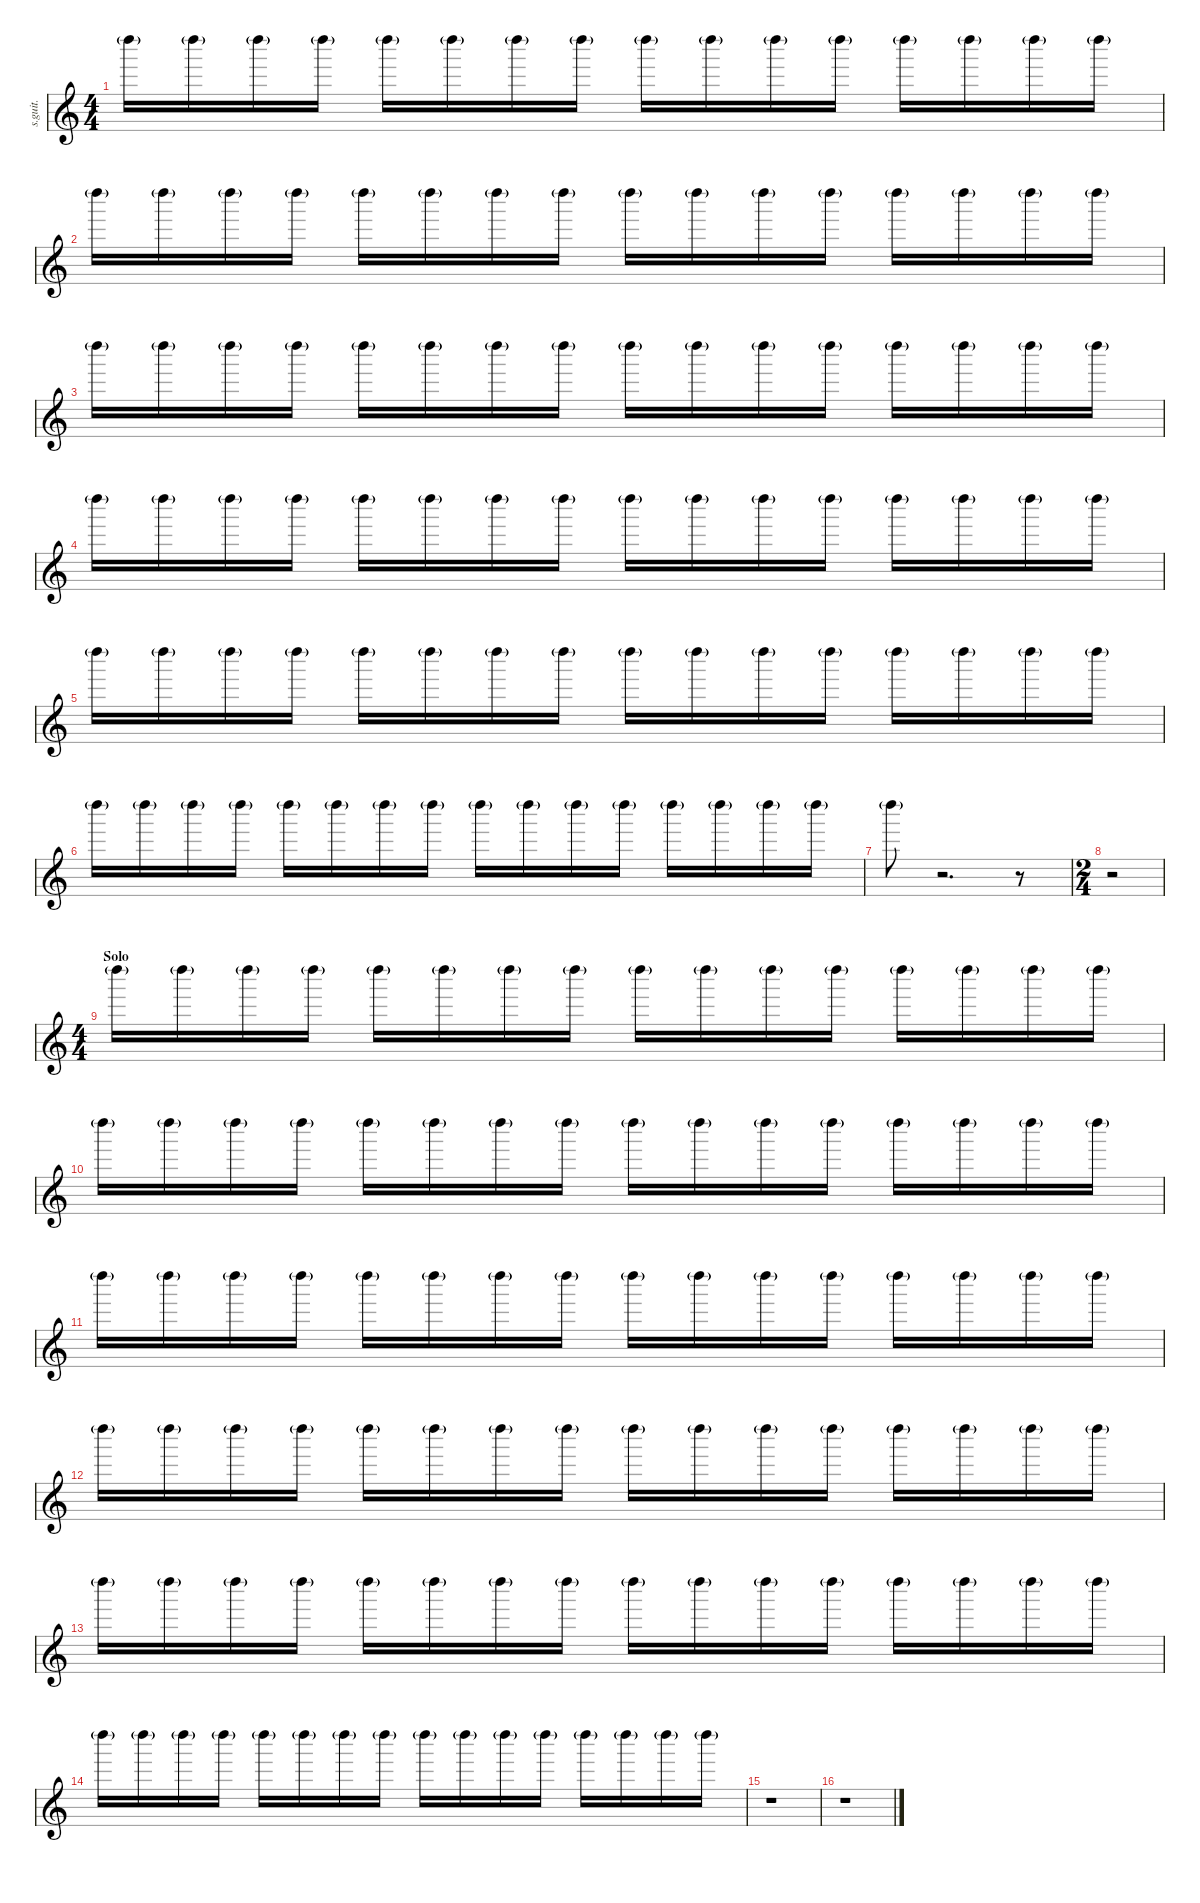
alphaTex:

\defaultSystemsLayout 4
\hideDynamics
\bracketExtendMode nobrackets
\track ("Shaker" "s.guit.") {instrument percussion}
\staff {score}
\articulation defaults
\ts (4 4)
\tempo (89 hide)
\clef g2
\ks c "Left Maraca (hit)"{g}.16{lyrics (0 "") lyrics (1 "") lyrics (2 "") lyrics (3 "") lyrics (4 "") dy mp} "Left Maraca (hit)"{g}.16{lyrics (0 "") lyrics (1 "") lyrics (2 "") lyrics (3 "") lyrics (4 "") dy p} "Left Maraca (hit)"{g}.16{lyrics (0 "") lyrics (1 "") lyrics (2 "") lyrics (3 "") lyrics (4 "")} "Left Maraca (hit)"{g}.16{lyrics (0 "") lyrics (1 "") lyrics (2 "") lyrics (3 "") lyrics (4 "")} "Left Maraca (hit)"{g}.16{lyrics (0 "") lyrics (1 "") lyrics (2 "") lyrics (3 "") lyrics (4 "") dy mp} "Left Maraca (hit)"{g}.16{lyrics (0 "") lyrics (1 "") lyrics (2 "") lyrics (3 "") lyrics (4 "") dy p} "Left Maraca (hit)"{g}.16{lyrics (0 "") lyrics (1 "") lyrics (2 "") lyrics (3 "") lyrics (4 "")} "Left Maraca (hit)"{g}.16{lyrics (0 "") lyrics (1 "") lyrics (2 "") lyrics (3 "") lyrics (4 "")} "Left Maraca (hit)"{g}.16{lyrics (0 "") lyrics (1 "") lyrics (2 "") lyrics (3 "") lyrics (4 "") dy mp} "Left Maraca (hit)"{g}.16{lyrics (0 "") lyrics (1 "") lyrics (2 "") lyrics (3 "") lyrics (4 "") dy p} "Left Maraca (hit)"{g}.16{lyrics (0 "") lyrics (1 "") lyrics (2 "") lyrics (3 "") lyrics (4 "")} "Left Maraca (hit)"{g}.16{lyrics (0 "") lyrics (1 "") lyrics (2 "") lyrics (3 "") lyrics (4 "")} "Left Maraca (hit)"{g}.16{lyrics (0 "") lyrics (1 "") lyrics (2 "") lyrics (3 "") lyrics (4 "") dy mp} "Left Maraca (hit)"{g}.16{lyrics (0 "") lyrics (1 "") lyrics (2 "") lyrics (3 "") lyrics (4 "") dy p} "Left Maraca (hit)"{g}.16{lyrics (0 "") lyrics (1 "") lyrics (2 "") lyrics (3 "") lyrics (4 "")} "Left Maraca (hit)"{g}.16{lyrics (0 "") lyrics (1 "") lyrics (2 "") lyrics (3 "") lyrics (4 "")}
|
"Left Maraca (hit)"{g}.16{lyrics (0 "") lyrics (1 "") lyrics (2 "") lyrics (3 "") lyrics (4 "") dy mp} "Left Maraca (hit)"{g}.16{lyrics (0 "") lyrics (1 "") lyrics (2 "") lyrics (3 "") lyrics (4 "") dy p} "Left Maraca (hit)"{g}.16{lyrics (0 "") lyrics (1 "") lyrics (2 "") lyrics (3 "") lyrics (4 "")} "Left Maraca (hit)"{g}.16{lyrics (0 "") lyrics (1 "") lyrics (2 "") lyrics (3 "") lyrics (4 "")} "Left Maraca (hit)"{g}.16{lyrics (0 "") lyrics (1 "") lyrics (2 "") lyrics (3 "") lyrics (4 "") dy mp} "Left Maraca (hit)"{g}.16{lyrics (0 "") lyrics (1 "") lyrics (2 "") lyrics (3 "") lyrics (4 "") dy p} "Left Maraca (hit)"{g}.16{lyrics (0 "") lyrics (1 "") lyrics (2 "") lyrics (3 "") lyrics (4 "")} "Left Maraca (hit)"{g}.16{lyrics (0 "") lyrics (1 "") lyrics (2 "") lyrics (3 "") lyrics (4 "")} "Left Maraca (hit)"{g}.16{lyrics (0 "") lyrics (1 "") lyrics (2 "") lyrics (3 "") lyrics (4 "") dy mp} "Left Maraca (hit)"{g}.16{lyrics (0 "") lyrics (1 "") lyrics (2 "") lyrics (3 "") lyrics (4 "") dy p} "Left Maraca (hit)"{g}.16{lyrics (0 "") lyrics (1 "") lyrics (2 "") lyrics (3 "") lyrics (4 "")} "Left Maraca (hit)"{g}.16{lyrics (0 "") lyrics (1 "") lyrics (2 "") lyrics (3 "") lyrics (4 "")} "Left Maraca (hit)"{g}.16{lyrics (0 "") lyrics (1 "") lyrics (2 "") lyrics (3 "") lyrics (4 "") dy mp} "Left Maraca (hit)"{g}.16{lyrics (0 "") lyrics (1 "") lyrics (2 "") lyrics (3 "") lyrics (4 "") dy p} "Left Maraca (hit)"{g}.16{lyrics (0 "") lyrics (1 "") lyrics (2 "") lyrics (3 "") lyrics (4 "")} "Left Maraca (hit)"{g}.16{lyrics (0 "") lyrics (1 "") lyrics (2 "") lyrics (3 "") lyrics (4 "")} |
\tempo (90 hide)
"Left Maraca (hit)"{g}.16{lyrics (0 "") lyrics (1 "") lyrics (2 "") lyrics (3 "") lyrics (4 "") dy mp} "Left Maraca (hit)"{g}.16{lyrics (0 "") lyrics (1 "") lyrics (2 "") lyrics (3 "") lyrics (4 "") dy p} "Left Maraca (hit)"{g}.16{lyrics (0 "") lyrics (1 "") lyrics (2 "") lyrics (3 "") lyrics (4 "")} "Left Maraca (hit)"{g}.16{lyrics (0 "") lyrics (1 "") lyrics (2 "") lyrics (3 "") lyrics (4 "")} "Left Maraca (hit)"{g}.16{lyrics (0 "") lyrics (1 "") lyrics (2 "") lyrics (3 "") lyrics (4 "") dy mp} "Left Maraca (hit)"{g}.16{lyrics (0 "") lyrics (1 "") lyrics (2 "") lyrics (3 "") lyrics (4 "") dy p} "Left Maraca (hit)"{g}.16{lyrics (0 "") lyrics (1 "") lyrics (2 "") lyrics (3 "") lyrics (4 "")} "Left Maraca (hit)"{g}.16{lyrics (0 "") lyrics (1 "") lyrics (2 "") lyrics (3 "") lyrics (4 "")} "Left Maraca (hit)"{g}.16{lyrics (0 "") lyrics (1 "") lyrics (2 "") lyrics (3 "") lyrics (4 "") dy mp} "Left Maraca (hit)"{g}.16{lyrics (0 "") lyrics (1 "") lyrics (2 "") lyrics (3 "") lyrics (4 "") dy p} "Left Maraca (hit)"{g}.16{lyrics (0 "") lyrics (1 "") lyrics (2 "") lyrics (3 "") lyrics (4 "")} "Left Maraca (hit)"{g}.16{lyrics (0 "") lyrics (1 "") lyrics (2 "") lyrics (3 "") lyrics (4 "")} "Left Maraca (hit)"{g}.16{lyrics (0 "") lyrics (1 "") lyrics (2 "") lyrics (3 "") lyrics (4 "") dy mp} "Left Maraca (hit)"{g}.16{lyrics (0 "") lyrics (1 "") lyrics (2 "") lyrics (3 "") lyrics (4 "") dy p} "Left Maraca (hit)"{g}.16{lyrics (0 "") lyrics (1 "") lyrics (2 "") lyrics (3 "") lyrics (4 "")} "Left Maraca (hit)"{g}.16{lyrics (0 "") lyrics (1 "") lyrics (2 "") lyrics (3 "") lyrics (4 "")} |
\tempo (89 hide)
"Left Maraca (hit)"{g}.16{lyrics (0 "") lyrics (1 "") lyrics (2 "") lyrics (3 "") lyrics (4 "") dy mp} "Left Maraca (hit)"{g}.16{lyrics (0 "") lyrics (1 "") lyrics (2 "") lyrics (3 "") lyrics (4 "") dy p} "Left Maraca (hit)"{g}.16{lyrics (0 "") lyrics (1 "") lyrics (2 "") lyrics (3 "") lyrics (4 "")} "Left Maraca (hit)"{g}.16{lyrics (0 "") lyrics (1 "") lyrics (2 "") lyrics (3 "") lyrics (4 "")} "Left Maraca (hit)"{g}.16{lyrics (0 "") lyrics (1 "") lyrics (2 "") lyrics (3 "") lyrics (4 "") dy mp} "Left Maraca (hit)"{g}.16{lyrics (0 "") lyrics (1 "") lyrics (2 "") lyrics (3 "") lyrics (4 "") dy p} "Left Maraca (hit)"{g}.16{lyrics (0 "") lyrics (1 "") lyrics (2 "") lyrics (3 "") lyrics (4 "")} "Left Maraca (hit)"{g}.16{lyrics (0 "") lyrics (1 "") lyrics (2 "") lyrics (3 "") lyrics (4 "")} "Left Maraca (hit)"{g}.16{lyrics (0 "") lyrics (1 "") lyrics (2 "") lyrics (3 "") lyrics (4 "") dy mp} "Left Maraca (hit)"{g}.16{lyrics (0 "") lyrics (1 "") lyrics (2 "") lyrics (3 "") lyrics (4 "") dy p} "Left Maraca (hit)"{g}.16{lyrics (0 "") lyrics (1 "") lyrics (2 "") lyrics (3 "") lyrics (4 "")} "Left Maraca (hit)"{g}.16{lyrics (0 "") lyrics (1 "") lyrics (2 "") lyrics (3 "") lyrics (4 "")} "Left Maraca (hit)"{g}.16{lyrics (0 "") lyrics (1 "") lyrics (2 "") lyrics (3 "") lyrics (4 "") dy mp} "Left Maraca (hit)"{g}.16{lyrics (0 "") lyrics (1 "") lyrics (2 "") lyrics (3 "") lyrics (4 "") dy p} "Left Maraca (hit)"{g}.16{lyrics (0 "") lyrics (1 "") lyrics (2 "") lyrics (3 "") lyrics (4 "")} "Left Maraca (hit)"{g}.16{lyrics (0 "") lyrics (1 "") lyrics (2 "") lyrics (3 "") lyrics (4 "")} |
"Left Maraca (hit)"{g}.16{lyrics (0 "") lyrics (1 "") lyrics (2 "") lyrics (3 "") lyrics (4 "") dy mp} "Left Maraca (hit)"{g}.16{lyrics (0 "") lyrics (1 "") lyrics (2 "") lyrics (3 "") lyrics (4 "") dy p} "Left Maraca (hit)"{g}.16{lyrics (0 "") lyrics (1 "") lyrics (2 "") lyrics (3 "") lyrics (4 "")} "Left Maraca (hit)"{g}.16{lyrics (0 "") lyrics (1 "") lyrics (2 "") lyrics (3 "") lyrics (4 "")} "Left Maraca (hit)"{g}.16{lyrics (0 "") lyrics (1 "") lyrics (2 "") lyrics (3 "") lyrics (4 "") dy mp} "Left Maraca (hit)"{g}.16{lyrics (0 "") lyrics (1 "") lyrics (2 "") lyrics (3 "") lyrics (4 "") dy p} "Left Maraca (hit)"{g}.16{lyrics (0 "") lyrics (1 "") lyrics (2 "") lyrics (3 "") lyrics (4 "")} "Left Maraca (hit)"{g}.16{lyrics (0 "") lyrics (1 "") lyrics (2 "") lyrics (3 "") lyrics (4 "")} "Left Maraca (hit)"{g}.16{lyrics (0 "") lyrics (1 "") lyrics (2 "") lyrics (3 "") lyrics (4 "") dy mp} "Left Maraca (hit)"{g}.16{lyrics (0 "") lyrics (1 "") lyrics (2 "") lyrics (3 "") lyrics (4 "") dy p} "Left Maraca (hit)"{g}.16{lyrics (0 "") lyrics (1 "") lyrics (2 "") lyrics (3 "") lyrics (4 "")} "Left Maraca (hit)"{g}.16{lyrics (0 "") lyrics (1 "") lyrics (2 "") lyrics (3 "") lyrics (4 "")} "Left Maraca (hit)"{g}.16{lyrics (0 "") lyrics (1 "") lyrics (2 "") lyrics (3 "") lyrics (4 "") dy mp} "Left Maraca (hit)"{g}.16{lyrics (0 "") lyrics (1 "") lyrics (2 "") lyrics (3 "") lyrics (4 "") dy p} "Left Maraca (hit)"{g}.16{lyrics (0 "") lyrics (1 "") lyrics (2 "") lyrics (3 "") lyrics (4 "")} "Left Maraca (hit)"{g}.16{lyrics (0 "") lyrics (1 "") lyrics (2 "") lyrics (3 "") lyrics (4 "")} |
\tempo (88 hide)
"Left Maraca (hit)"{g}.16{lyrics (0 "") lyrics (1 "") lyrics (2 "") lyrics (3 "") lyrics (4 "") dy mp} "Left Maraca (hit)"{g}.16{lyrics (0 "") lyrics (1 "") lyrics (2 "") lyrics (3 "") lyrics (4 "") dy p} "Left Maraca (hit)"{g}.16{lyrics (0 "") lyrics (1 "") lyrics (2 "") lyrics (3 "") lyrics (4 "")} "Left Maraca (hit)"{g}.16{lyrics (0 "") lyrics (1 "") lyrics (2 "") lyrics (3 "") lyrics (4 "")} "Left Maraca (hit)"{g}.16{lyrics (0 "") lyrics (1 "") lyrics (2 "") lyrics (3 "") lyrics (4 "") dy mp} "Left Maraca (hit)"{g}.16{lyrics (0 "") lyrics (1 "") lyrics (2 "") lyrics (3 "") lyrics (4 "") dy p} "Left Maraca (hit)"{g}.16{lyrics (0 "") lyrics (1 "") lyrics (2 "") lyrics (3 "") lyrics (4 "")} "Left Maraca (hit)"{g}.16{lyrics (0 "") lyrics (1 "") lyrics (2 "") lyrics (3 "") lyrics (4 "")} "Left Maraca (hit)"{g}.16{lyrics (0 "") lyrics (1 "") lyrics (2 "") lyrics (3 "") lyrics (4 "") dy mp} "Left Maraca (hit)"{g}.16{lyrics (0 "") lyrics (1 "") lyrics (2 "") lyrics (3 "") lyrics (4 "") dy p} "Left Maraca (hit)"{g}.16{lyrics (0 "") lyrics (1 "") lyrics (2 "") lyrics (3 "") lyrics (4 "")} "Left Maraca (hit)"{g}.16{lyrics (0 "") lyrics (1 "") lyrics (2 "") lyrics (3 "") lyrics (4 "")} "Left Maraca (hit)"{g}.16{lyrics (0 "") lyrics (1 "") lyrics (2 "") lyrics (3 "") lyrics (4 "") dy mp} "Left Maraca (hit)"{g}.16{lyrics (0 "") lyrics (1 "") lyrics (2 "") lyrics (3 "") lyrics (4 "") dy p} "Left Maraca (hit)"{g}.16{lyrics (0 "") lyrics (1 "") lyrics (2 "") lyrics (3 "") lyrics (4 "")} "Left Maraca (hit)"{g}.16{lyrics (0 "") lyrics (1 "") lyrics (2 "") lyrics (3 "") lyrics (4 "")} |
\tempo (90 hide)
"Left Maraca (hit)"{g}.8{lyrics (0 "") lyrics (1 "") lyrics (2 "") lyrics (3 "") lyrics (4 "") dy mp} r.2{d} r.8 |
\ts (2 4)
\beaming (8 2 2 2 2)
r.2 |
\ts (4 4)
\beaming (8 2 2 2 2)
\section ("" "Solo")
\tempo (87 hide)
"Left Maraca (hit)"{g}.16{lyrics (0 "") lyrics (1 "") lyrics (2 "") lyrics (3 "") lyrics (4 "")} "Left Maraca (hit)"{g}.16{lyrics (0 "") lyrics (1 "") lyrics (2 "") lyrics (3 "") lyrics (4 "") dy p} "Left Maraca (hit)"{g}.16{lyrics (0 "") lyrics (1 "") lyrics (2 "") lyrics (3 "") lyrics (4 "")} "Left Maraca (hit)"{g}.16{lyrics (0 "") lyrics (1 "") lyrics (2 "") lyrics (3 "") lyrics (4 "")} "Left Maraca (hit)"{g}.16{lyrics (0 "") lyrics (1 "") lyrics (2 "") lyrics (3 "") lyrics (4 "") dy mp} "Left Maraca (hit)"{g}.16{lyrics (0 "") lyrics (1 "") lyrics (2 "") lyrics (3 "") lyrics (4 "") dy p} "Left Maraca (hit)"{g}.16{lyrics (0 "") lyrics (1 "") lyrics (2 "") lyrics (3 "") lyrics (4 "")} "Left Maraca (hit)"{g}.16{lyrics (0 "") lyrics (1 "") lyrics (2 "") lyrics (3 "") lyrics (4 "")} "Left Maraca (hit)"{g}.16{lyrics (0 "") lyrics (1 "") lyrics (2 "") lyrics (3 "") lyrics (4 "") dy mp} "Left Maraca (hit)"{g}.16{lyrics (0 "") lyrics (1 "") lyrics (2 "") lyrics (3 "") lyrics (4 "") dy p} "Left Maraca (hit)"{g}.16{lyrics (0 "") lyrics (1 "") lyrics (2 "") lyrics (3 "") lyrics (4 "")} "Left Maraca (hit)"{g}.16{lyrics (0 "") lyrics (1 "") lyrics (2 "") lyrics (3 "") lyrics (4 "")} "Left Maraca (hit)"{g}.16{lyrics (0 "") lyrics (1 "") lyrics (2 "") lyrics (3 "") lyrics (4 "") dy mp} "Left Maraca (hit)"{g}.16{lyrics (0 "") lyrics (1 "") lyrics (2 "") lyrics (3 "") lyrics (4 "") dy p} "Left Maraca (hit)"{g}.16{lyrics (0 "") lyrics (1 "") lyrics (2 "") lyrics (3 "") lyrics (4 "")} "Left Maraca (hit)"{g}.16{lyrics (0 "") lyrics (1 "") lyrics (2 "") lyrics (3 "") lyrics (4 "")} |
\tempo (89 hide)
"Left Maraca (hit)"{g}.16{lyrics (0 "") lyrics (1 "") lyrics (2 "") lyrics (3 "") lyrics (4 "") dy mp} "Left Maraca (hit)"{g}.16{lyrics (0 "") lyrics (1 "") lyrics (2 "") lyrics (3 "") lyrics (4 "") dy p} "Left Maraca (hit)"{g}.16{lyrics (0 "") lyrics (1 "") lyrics (2 "") lyrics (3 "") lyrics (4 "")} "Left Maraca (hit)"{g}.16{lyrics (0 "") lyrics (1 "") lyrics (2 "") lyrics (3 "") lyrics (4 "")} "Left Maraca (hit)"{g}.16{lyrics (0 "") lyrics (1 "") lyrics (2 "") lyrics (3 "") lyrics (4 "") dy mp} "Left Maraca (hit)"{g}.16{lyrics (0 "") lyrics (1 "") lyrics (2 "") lyrics (3 "") lyrics (4 "") dy p} "Left Maraca (hit)"{g}.16{lyrics (0 "") lyrics (1 "") lyrics (2 "") lyrics (3 "") lyrics (4 "")} "Left Maraca (hit)"{g}.16{lyrics (0 "") lyrics (1 "") lyrics (2 "") lyrics (3 "") lyrics (4 "")} "Left Maraca (hit)"{g}.16{lyrics (0 "") lyrics (1 "") lyrics (2 "") lyrics (3 "") lyrics (4 "") dy mp} "Left Maraca (hit)"{g}.16{lyrics (0 "") lyrics (1 "") lyrics (2 "") lyrics (3 "") lyrics (4 "") dy p} "Left Maraca (hit)"{g}.16{lyrics (0 "") lyrics (1 "") lyrics (2 "") lyrics (3 "") lyrics (4 "")} "Left Maraca (hit)"{g}.16{lyrics (0 "") lyrics (1 "") lyrics (2 "") lyrics (3 "") lyrics (4 "")} "Left Maraca (hit)"{g}.16{lyrics (0 "") lyrics (1 "") lyrics (2 "") lyrics (3 "") lyrics (4 "") dy mp} "Left Maraca (hit)"{g}.16{lyrics (0 "") lyrics (1 "") lyrics (2 "") lyrics (3 "") lyrics (4 "") dy p} "Left Maraca (hit)"{g}.16{lyrics (0 "") lyrics (1 "") lyrics (2 "") lyrics (3 "") lyrics (4 "")} "Left Maraca (hit)"{g}.16{lyrics (0 "") lyrics (1 "") lyrics (2 "") lyrics (3 "") lyrics (4 "")} |
"Left Maraca (hit)"{g}.16{lyrics (0 "") lyrics (1 "") lyrics (2 "") lyrics (3 "") lyrics (4 "") dy mp} "Left Maraca (hit)"{g}.16{lyrics (0 "") lyrics (1 "") lyrics (2 "") lyrics (3 "") lyrics (4 "") dy p} "Left Maraca (hit)"{g}.16{lyrics (0 "") lyrics (1 "") lyrics (2 "") lyrics (3 "") lyrics (4 "")} "Left Maraca (hit)"{g}.16{lyrics (0 "") lyrics (1 "") lyrics (2 "") lyrics (3 "") lyrics (4 "")} "Left Maraca (hit)"{g}.16{lyrics (0 "") lyrics (1 "") lyrics (2 "") lyrics (3 "") lyrics (4 "") dy mp} "Left Maraca (hit)"{g}.16{lyrics (0 "") lyrics (1 "") lyrics (2 "") lyrics (3 "") lyrics (4 "") dy p} "Left Maraca (hit)"{g}.16{lyrics (0 "") lyrics (1 "") lyrics (2 "") lyrics (3 "") lyrics (4 "")} "Left Maraca (hit)"{g}.16{lyrics (0 "") lyrics (1 "") lyrics (2 "") lyrics (3 "") lyrics (4 "")} "Left Maraca (hit)"{g}.16{lyrics (0 "") lyrics (1 "") lyrics (2 "") lyrics (3 "") lyrics (4 "") dy mp} "Left Maraca (hit)"{g}.16{lyrics (0 "") lyrics (1 "") lyrics (2 "") lyrics (3 "") lyrics (4 "") dy p} "Left Maraca (hit)"{g}.16{lyrics (0 "") lyrics (1 "") lyrics (2 "") lyrics (3 "") lyrics (4 "")} "Left Maraca (hit)"{g}.16{lyrics (0 "") lyrics (1 "") lyrics (2 "") lyrics (3 "") lyrics (4 "")} "Left Maraca (hit)"{g}.16{lyrics (0 "") lyrics (1 "") lyrics (2 "") lyrics (3 "") lyrics (4 "") dy mp} "Left Maraca (hit)"{g}.16{lyrics (0 "") lyrics (1 "") lyrics (2 "") lyrics (3 "") lyrics (4 "") dy p} "Left Maraca (hit)"{g}.16{lyrics (0 "") lyrics (1 "") lyrics (2 "") lyrics (3 "") lyrics (4 "")} "Left Maraca (hit)"{g}.16{lyrics (0 "") lyrics (1 "") lyrics (2 "") lyrics (3 "") lyrics (4 "")} |
\tempo (90 hide)
"Left Maraca (hit)"{g}.16{lyrics (0 "") lyrics (1 "") lyrics (2 "") lyrics (3 "") lyrics (4 "") dy mp} "Left Maraca (hit)"{g}.16{lyrics (0 "") lyrics (1 "") lyrics (2 "") lyrics (3 "") lyrics (4 "") dy p} "Left Maraca (hit)"{g}.16{lyrics (0 "") lyrics (1 "") lyrics (2 "") lyrics (3 "") lyrics (4 "")} "Left Maraca (hit)"{g}.16{lyrics (0 "") lyrics (1 "") lyrics (2 "") lyrics (3 "") lyrics (4 "")} "Left Maraca (hit)"{g}.16{lyrics (0 "") lyrics (1 "") lyrics (2 "") lyrics (3 "") lyrics (4 "") dy mp} "Left Maraca (hit)"{g}.16{lyrics (0 "") lyrics (1 "") lyrics (2 "") lyrics (3 "") lyrics (4 "") dy p} "Left Maraca (hit)"{g}.16{lyrics (0 "") lyrics (1 "") lyrics (2 "") lyrics (3 "") lyrics (4 "")} "Left Maraca (hit)"{g}.16{lyrics (0 "") lyrics (1 "") lyrics (2 "") lyrics (3 "") lyrics (4 "")} "Left Maraca (hit)"{g}.16{lyrics (0 "") lyrics (1 "") lyrics (2 "") lyrics (3 "") lyrics (4 "") dy mp} "Left Maraca (hit)"{g}.16{lyrics (0 "") lyrics (1 "") lyrics (2 "") lyrics (3 "") lyrics (4 "") dy p} "Left Maraca (hit)"{g}.16{lyrics (0 "") lyrics (1 "") lyrics (2 "") lyrics (3 "") lyrics (4 "")} "Left Maraca (hit)"{g}.16{lyrics (0 "") lyrics (1 "") lyrics (2 "") lyrics (3 "") lyrics (4 "")} "Left Maraca (hit)"{g}.16{lyrics (0 "") lyrics (1 "") lyrics (2 "") lyrics (3 "") lyrics (4 "") dy mp} "Left Maraca (hit)"{g}.16{lyrics (0 "") lyrics (1 "") lyrics (2 "") lyrics (3 "") lyrics (4 "") dy p} "Left Maraca (hit)"{g}.16{lyrics (0 "") lyrics (1 "") lyrics (2 "") lyrics (3 "") lyrics (4 "")} "Left Maraca (hit)"{g}.16{lyrics (0 "") lyrics (1 "") lyrics (2 "") lyrics (3 "") lyrics (4 "")} |
\tempo (87 hide)
"Left Maraca (hit)"{g}.16{lyrics (0 "") lyrics (1 "") lyrics (2 "") lyrics (3 "") lyrics (4 "") dy mp} "Left Maraca (hit)"{g}.16{lyrics (0 "") lyrics (1 "") lyrics (2 "") lyrics (3 "") lyrics (4 "") dy p} "Left Maraca (hit)"{g}.16{lyrics (0 "") lyrics (1 "") lyrics (2 "") lyrics (3 "") lyrics (4 "")} "Left Maraca (hit)"{g}.16{lyrics (0 "") lyrics (1 "") lyrics (2 "") lyrics (3 "") lyrics (4 "")} "Left Maraca (hit)"{g}.16{lyrics (0 "") lyrics (1 "") lyrics (2 "") lyrics (3 "") lyrics (4 "") dy mp} "Left Maraca (hit)"{g}.16{lyrics (0 "") lyrics (1 "") lyrics (2 "") lyrics (3 "") lyrics (4 "") dy p} "Left Maraca (hit)"{g}.16{lyrics (0 "") lyrics (1 "") lyrics (2 "") lyrics (3 "") lyrics (4 "")} "Left Maraca (hit)"{g}.16{lyrics (0 "") lyrics (1 "") lyrics (2 "") lyrics (3 "") lyrics (4 "")} "Left Maraca (hit)"{g}.16{lyrics (0 "") lyrics (1 "") lyrics (2 "") lyrics (3 "") lyrics (4 "") dy mp} "Left Maraca (hit)"{g}.16{lyrics (0 "") lyrics (1 "") lyrics (2 "") lyrics (3 "") lyrics (4 "") dy p} "Left Maraca (hit)"{g}.16{lyrics (0 "") lyrics (1 "") lyrics (2 "") lyrics (3 "") lyrics (4 "")} "Left Maraca (hit)"{g}.16{lyrics (0 "") lyrics (1 "") lyrics (2 "") lyrics (3 "") lyrics (4 "")} "Left Maraca (hit)"{g}.16{lyrics (0 "") lyrics (1 "") lyrics (2 "") lyrics (3 "") lyrics (4 "") dy mp} "Left Maraca (hit)"{g}.16{lyrics (0 "") lyrics (1 "") lyrics (2 "") lyrics (3 "") lyrics (4 "") dy p} "Left Maraca (hit)"{g}.16{lyrics (0 "") lyrics (1 "") lyrics (2 "") lyrics (3 "") lyrics (4 "")} "Left Maraca (hit)"{g}.16{lyrics (0 "") lyrics (1 "") lyrics (2 "") lyrics (3 "") lyrics (4 "")} |
\tempo (89 hide)
"Left Maraca (hit)"{g}.16{lyrics (0 "") lyrics (1 "") lyrics (2 "") lyrics (3 "") lyrics (4 "") dy mp} "Left Maraca (hit)"{g}.16{lyrics (0 "") lyrics (1 "") lyrics (2 "") lyrics (3 "") lyrics (4 "") dy p} "Left Maraca (hit)"{g}.16{lyrics (0 "") lyrics (1 "") lyrics (2 "") lyrics (3 "") lyrics (4 "")} "Left Maraca (hit)"{g}.16{lyrics (0 "") lyrics (1 "") lyrics (2 "") lyrics (3 "") lyrics (4 "")} "Left Maraca (hit)"{g}.16{lyrics (0 "") lyrics (1 "") lyrics (2 "") lyrics (3 "") lyrics (4 "") dy mp} "Left Maraca (hit)"{g}.16{lyrics (0 "") lyrics (1 "") lyrics (2 "") lyrics (3 "") lyrics (4 "") dy p} "Left Maraca (hit)"{g}.16{lyrics (0 "") lyrics (1 "") lyrics (2 "") lyrics (3 "") lyrics (4 "")} "Left Maraca (hit)"{g}.16{lyrics (0 "") lyrics (1 "") lyrics (2 "") lyrics (3 "") lyrics (4 "")} "Left Maraca (hit)"{g}.16{lyrics (0 "") lyrics (1 "") lyrics (2 "") lyrics (3 "") lyrics (4 "") dy mp} "Left Maraca (hit)"{g}.16{lyrics (0 "") lyrics (1 "") lyrics (2 "") lyrics (3 "") lyrics (4 "") dy p} "Left Maraca (hit)"{g}.16{lyrics (0 "") lyrics (1 "") lyrics (2 "") lyrics (3 "") lyrics (4 "")} "Left Maraca (hit)"{g}.16{lyrics (0 "") lyrics (1 "") lyrics (2 "") lyrics (3 "") lyrics (4 "")} "Left Maraca (hit)"{g}.16{lyrics (0 "") lyrics (1 "") lyrics (2 "") lyrics (3 "") lyrics (4 "") dy mp} "Left Maraca (hit)"{g}.16{lyrics (0 "") lyrics (1 "") lyrics (2 "") lyrics (3 "") lyrics (4 "") dy p} "Left Maraca (hit)"{g}.16{lyrics (0 "") lyrics (1 "") lyrics (2 "") lyrics (3 "") lyrics (4 "")} "Left Maraca (hit)"{g}.16{lyrics (0 "") lyrics (1 "") lyrics (2 "") lyrics (3 "") lyrics (4 "")} |
\tempo (88 hide)
r.1 |
\tempo (90 hide)
r.1
